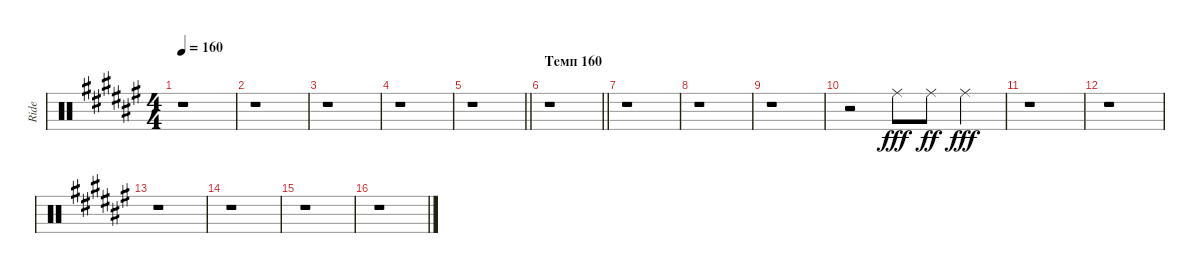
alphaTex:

\track ("Ride" "Ride") {instrument percussion}
\staff {score}
\articulation defaults
\ts (4 4)
\tempo 160
\clef neutral
\ks d#minor
r.1{dy f} |
r.1 |
r.1 |
r.1 |
\barLineRight lightlight
r.1 |
\section ("" "Темп 160")
\barLineRight lightlight
r.1 |
r.1 |
r.1 |
r.1 |
r.2 "Ride (middle)".8{dy fff} "Ride (middle)".8{dy ff} "Ride (middle)".4{dy fff} |
r.1 |
r.1 |
r.1 |
r.1 |
r.1 |
r.1
